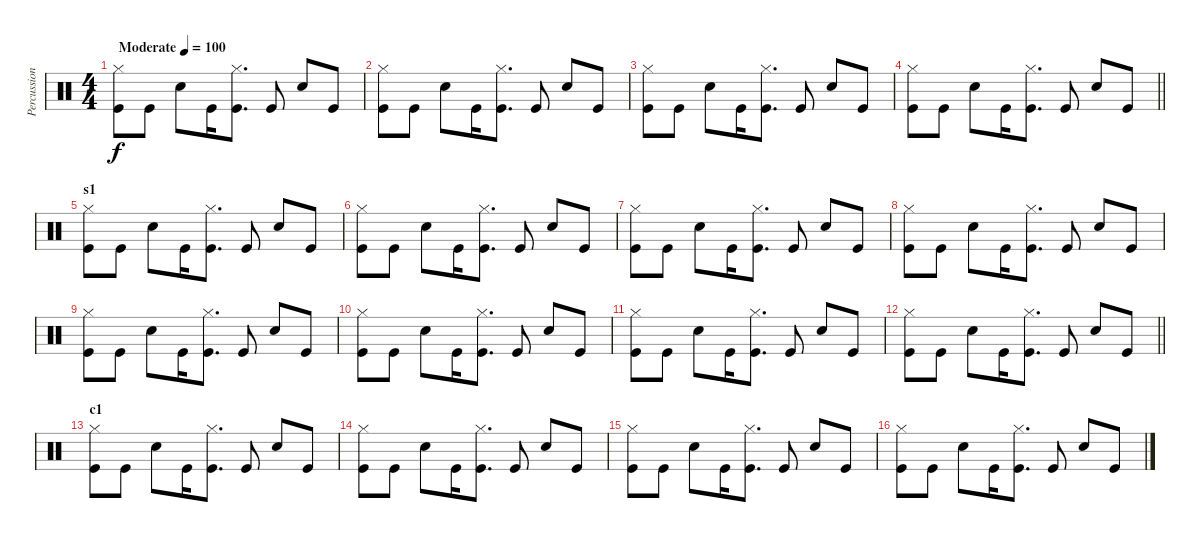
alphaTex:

\track ("Percussion" "Percussion") {instrument percussion}
\staff {score}
\articulation defaults
\ts (4 4)
\tempo (100 "Moderate")
\clef neutral
\ks c
("Hi-Hat (closed)" "Kick (hit)").8{dy f} "Kick (hit)".8 "Snare (hit) 2".8 "Kick (hit)".16 ("Hi-Hat (closed)" "Kick (hit)").8{d} "Kick (hit)".8 "Snare (hit) 2".8 "Kick (hit)".8 |
("Hi-Hat (closed)" "Kick (hit)").8 "Kick (hit)".8 "Snare (hit) 2".8 "Kick (hit)".16 ("Hi-Hat (closed)" "Kick (hit)").8{d} "Kick (hit)".8 "Snare (hit) 2".8 "Kick (hit)".8 |
("Hi-Hat (closed)" "Kick (hit)").8 "Kick (hit)".8 "Snare (hit) 2".8 "Kick (hit)".16 ("Hi-Hat (closed)" "Kick (hit)").8{d} "Kick (hit)".8 "Snare (hit) 2".8 "Kick (hit)".8 |
\barLineRight lightlight
("Hi-Hat (closed)" "Kick (hit)").8 "Kick (hit)".8 "Snare (hit) 2".8 "Kick (hit)".16 ("Hi-Hat (closed)" "Kick (hit)").8{d} "Kick (hit)".8 "Snare (hit) 2".8 "Kick (hit)".8 |
\section ("" "s1")
("Hi-Hat (closed)" "Kick (hit)").8 "Kick (hit)".8 "Snare (hit) 2".8 "Kick (hit)".16 ("Hi-Hat (closed)" "Kick (hit)").8{d} "Kick (hit)".8 "Snare (hit) 2".8 "Kick (hit)".8 |
("Hi-Hat (closed)" "Kick (hit)").8 "Kick (hit)".8 "Snare (hit) 2".8 "Kick (hit)".16 ("Hi-Hat (closed)" "Kick (hit)").8{d} "Kick (hit)".8 "Snare (hit) 2".8 "Kick (hit)".8 |
("Hi-Hat (closed)" "Kick (hit)").8 "Kick (hit)".8 "Snare (hit) 2".8 "Kick (hit)".16 ("Hi-Hat (closed)" "Kick (hit)").8{d} "Kick (hit)".8 "Snare (hit) 2".8 "Kick (hit)".8 |
("Hi-Hat (closed)" "Kick (hit)").8 "Kick (hit)".8 "Snare (hit) 2".8 "Kick (hit)".16 ("Hi-Hat (closed)" "Kick (hit)").8{d} "Kick (hit)".8 "Snare (hit) 2".8 "Kick (hit)".8 |
("Hi-Hat (closed)" "Kick (hit)").8 "Kick (hit)".8 "Snare (hit) 2".8 "Kick (hit)".16 ("Hi-Hat (closed)" "Kick (hit)").8{d} "Kick (hit)".8 "Snare (hit) 2".8 "Kick (hit)".8 |
("Hi-Hat (closed)" "Kick (hit)").8 "Kick (hit)".8 "Snare (hit) 2".8 "Kick (hit)".16 ("Hi-Hat (closed)" "Kick (hit)").8{d} "Kick (hit)".8 "Snare (hit) 2".8 "Kick (hit)".8 |
("Hi-Hat (closed)" "Kick (hit)").8 "Kick (hit)".8 "Snare (hit) 2".8 "Kick (hit)".16 ("Hi-Hat (closed)" "Kick (hit)").8{d} "Kick (hit)".8 "Snare (hit) 2".8 "Kick (hit)".8 |
\barLineRight lightlight
("Hi-Hat (closed)" "Kick (hit)").8 "Kick (hit)".8 "Snare (hit) 2".8 "Kick (hit)".16 ("Hi-Hat (closed)" "Kick (hit)").8{d} "Kick (hit)".8 "Snare (hit) 2".8 "Kick (hit)".8 |
\section ("" "c1")
("Hi-Hat (closed)" "Kick (hit)").8 "Kick (hit)".8 "Snare (hit) 2".8 "Kick (hit)".16 ("Hi-Hat (closed)" "Kick (hit)").8{d} "Kick (hit)".8 "Snare (hit) 2".8 "Kick (hit)".8 |
("Hi-Hat (closed)" "Kick (hit)").8 "Kick (hit)".8 "Snare (hit) 2".8 "Kick (hit)".16 ("Hi-Hat (closed)" "Kick (hit)").8{d} "Kick (hit)".8 "Snare (hit) 2".8 "Kick (hit)".8 |
("Hi-Hat (closed)" "Kick (hit)").8 "Kick (hit)".8 "Snare (hit) 2".8 "Kick (hit)".16 ("Hi-Hat (closed)" "Kick (hit)").8{d} "Kick (hit)".8 "Snare (hit) 2".8 "Kick (hit)".8 |
("Hi-Hat (closed)" "Kick (hit)").8 "Kick (hit)".8 "Snare (hit) 2".8 "Kick (hit)".16 ("Hi-Hat (closed)" "Kick (hit)").8{d} "Kick (hit)".8 "Snare (hit) 2".8 "Kick (hit)".8
